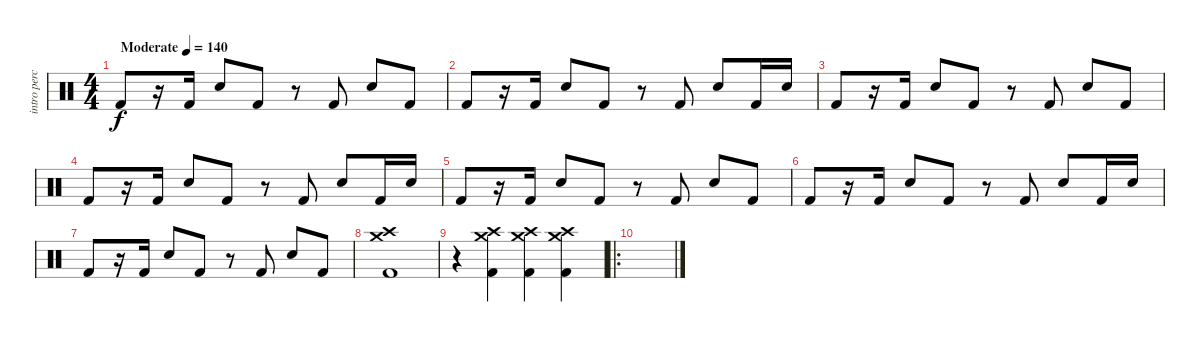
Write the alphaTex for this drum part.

\track ("intro perc" "intro perc") {instrument percussion}
\staff {score}
\articulation defaults
\ts (4 4)
\tempo (140 "Moderate")
\clef neutral
\ks c "Kick (hit) 2".8{dy f}
r.16 "Kick (hit) 2".16 "Electric Snare (hit)".8 "Kick (hit) 2".8 r.8 "Kick (hit) 2".8 "Electric Snare (hit)".8 "Kick (hit) 2".8 |
"Kick (hit) 2".8 r.16 "Kick (hit) 2".16 "Electric Snare (hit)".8 "Kick (hit) 2".8 r.8 "Kick (hit) 2".8 "Electric Snare (hit)".8 "Kick (hit) 2".16 "Electric Snare (hit)".16 |
"Kick (hit) 2".8 r.16 "Kick (hit) 2".16 "Electric Snare (hit)".8 "Kick (hit) 2".8 r.8 "Kick (hit) 2".8 "Electric Snare (hit)".8 "Kick (hit) 2".8 |
"Kick (hit) 2".8 r.16 "Kick (hit) 2".16 "Electric Snare (hit)".8 "Kick (hit) 2".8 r.8 "Kick (hit) 2".8 "Electric Snare (hit)".8 "Kick (hit) 2".16 "Electric Snare (hit)".16 |
"Kick (hit) 2".8 r.16 "Kick (hit) 2".16 "Electric Snare (hit)".8 "Kick (hit) 2".8 r.8 "Kick (hit) 2".8 "Electric Snare (hit)".8 "Kick (hit) 2".8 |
"Kick (hit) 2".8 r.16 "Kick (hit) 2".16 "Electric Snare (hit)".8 "Kick (hit) 2".8 r.8 "Kick (hit) 2".8 "Electric Snare (hit)".8 "Kick (hit) 2".16 "Electric Snare (hit)".16 |
"Kick (hit) 2".8 r.16 "Kick (hit) 2".16 "Electric Snare (hit)".8 "Kick (hit) 2".8 r.8 "Kick (hit) 2".8 "Electric Snare (hit)".8 "Kick (hit) 2".8 |
("Crash medium (hit)" "Crash high (hit)" "Kick (hit) 2").1 |
r.4 ("Crash medium (hit)" "Crash high (hit)" "Kick (hit) 2").4 ("Crash medium (hit)" "Crash high (hit)" "Kick (hit) 2").4 ("Crash medium (hit)" "Crash high (hit)" "Kick (hit) 2").4 |
\ro
